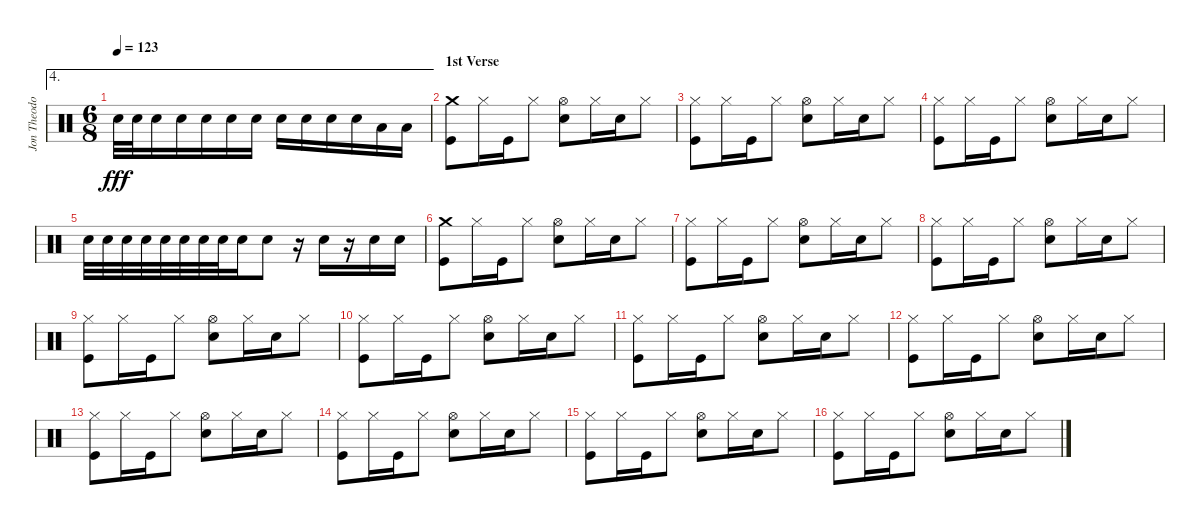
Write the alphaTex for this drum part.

\track ("Jon Theodore - Drums" "Jon Theodo") {instrument percussion}
\staff {score}
\articulation defaults
\ae 4
\ts (6 8)
\tempo 123
\clef neutral
\ks c "Snare (hit) 2".32{dy fff} "Snare (hit) 2".32 "Snare (hit) 2".16 "Snare (hit) 2".16 "Snare (hit) 2".16 "Snare (hit) 2".16 "Snare (hit) 2".16 "Snare (hit) 2".16 "Snare (hit) 2".16 "Snare (hit) 2".16 "Snare (hit) 2".16 "Low Tom (hit)".16 "Low Tom (hit)".16
|
\section ("" "1st Verse")
("Crash medium (hit)" "Kick (hit)").8 "Hi-Hat (closed)".16 "Kick (hit)".16 "Hi-Hat (closed)".8 ("Hi-Hat (open)" "Snare (hit) 2").8 "Hi-Hat (closed)".16 "Snare (hit) 2".16 "Hi-Hat (closed)".8 |
("Hi-Hat (closed)" "Kick (hit)").8 "Hi-Hat (closed)".16 "Kick (hit)".16 "Hi-Hat (closed)".8 ("Hi-Hat (open)" "Snare (hit) 2").8 "Hi-Hat (closed)".16 "Snare (hit) 2".16 "Hi-Hat (closed)".8 |
("Hi-Hat (closed)" "Kick (hit)").8 "Hi-Hat (closed)".16 "Kick (hit)".16 "Hi-Hat (closed)".8 ("Hi-Hat (open)" "Snare (hit) 2").8 "Hi-Hat (closed)".16 "Snare (hit) 2".16 "Hi-Hat (closed)".8 |
"Snare (hit) 2".32 "Snare (hit) 2".32 "Snare (hit) 2".32 "Snare (hit) 2".32 "Snare (hit) 2".32 "Snare (hit) 2".32 "Snare (hit) 2".32 "Snare (hit) 2".32 "Snare (hit) 2".16 "Snare (hit) 2".8 r.16 "Snare (hit) 2".16 r.16 "Snare (hit) 2".16 "Snare (hit) 2".16 |
("Crash medium (hit)" "Kick (hit)").8 "Hi-Hat (closed)".16 "Kick (hit)".16 "Hi-Hat (closed)".8 ("Hi-Hat (open)" "Snare (hit) 2").8 "Hi-Hat (closed)".16 "Snare (hit) 2".16 "Hi-Hat (closed)".8 |
("Hi-Hat (closed)" "Kick (hit)").8 "Hi-Hat (closed)".16 "Kick (hit)".16 "Hi-Hat (closed)".8 ("Hi-Hat (open)" "Snare (hit) 2").8 "Hi-Hat (closed)".16 "Snare (hit) 2".16 "Hi-Hat (closed)".8 |
("Hi-Hat (closed)" "Kick (hit)").8 "Hi-Hat (closed)".16 "Kick (hit)".16 "Hi-Hat (closed)".8 ("Hi-Hat (open)" "Snare (hit) 2").8 "Hi-Hat (closed)".16 "Snare (hit) 2".16 "Hi-Hat (closed)".8 |
("Hi-Hat (closed)" "Kick (hit)").8 "Hi-Hat (closed)".16 "Kick (hit)".16 "Hi-Hat (closed)".8 ("Hi-Hat (open)" "Snare (hit) 2").8 "Hi-Hat (closed)".16 "Snare (hit) 2".16 "Hi-Hat (closed)".8 |
("Hi-Hat (closed)" "Kick (hit)").8 "Hi-Hat (closed)".16 "Kick (hit)".16 "Hi-Hat (closed)".8 ("Hi-Hat (open)" "Snare (hit) 2").8 "Hi-Hat (closed)".16 "Snare (hit) 2".16 "Hi-Hat (closed)".8 |
("Hi-Hat (closed)" "Kick (hit)").8 "Hi-Hat (closed)".16 "Kick (hit)".16 "Hi-Hat (closed)".8 ("Hi-Hat (open)" "Snare (hit) 2").8 "Hi-Hat (closed)".16 "Snare (hit) 2".16 "Hi-Hat (closed)".8 |
("Hi-Hat (closed)" "Kick (hit)").8 "Hi-Hat (closed)".16 "Kick (hit)".16 "Hi-Hat (closed)".8 ("Hi-Hat (open)" "Snare (hit) 2").8 "Hi-Hat (closed)".16 "Snare (hit) 2".16 "Hi-Hat (closed)".8 |
("Hi-Hat (closed)" "Kick (hit)").8 "Hi-Hat (closed)".16 "Kick (hit)".16 "Hi-Hat (closed)".8 ("Hi-Hat (open)" "Snare (hit) 2").8 "Hi-Hat (closed)".16 "Snare (hit) 2".16 "Hi-Hat (closed)".8 |
("Hi-Hat (closed)" "Kick (hit)").8 "Hi-Hat (closed)".16 "Kick (hit)".16 "Hi-Hat (closed)".8 ("Hi-Hat (open)" "Snare (hit) 2").8 "Hi-Hat (closed)".16 "Snare (hit) 2".16 "Hi-Hat (closed)".8 |
("Hi-Hat (closed)" "Kick (hit)").8 "Hi-Hat (closed)".16 "Kick (hit)".16 "Hi-Hat (closed)".8 ("Hi-Hat (open)" "Snare (hit) 2").8 "Hi-Hat (closed)".16 "Snare (hit) 2".16 "Hi-Hat (closed)".8 |
("Hi-Hat (closed)" "Kick (hit)").8 "Hi-Hat (closed)".16 "Kick (hit)".16 "Hi-Hat (closed)".8 ("Hi-Hat (open)" "Snare (hit) 2").8 "Hi-Hat (closed)".16 "Snare (hit) 2".16 "Hi-Hat (closed)".8
